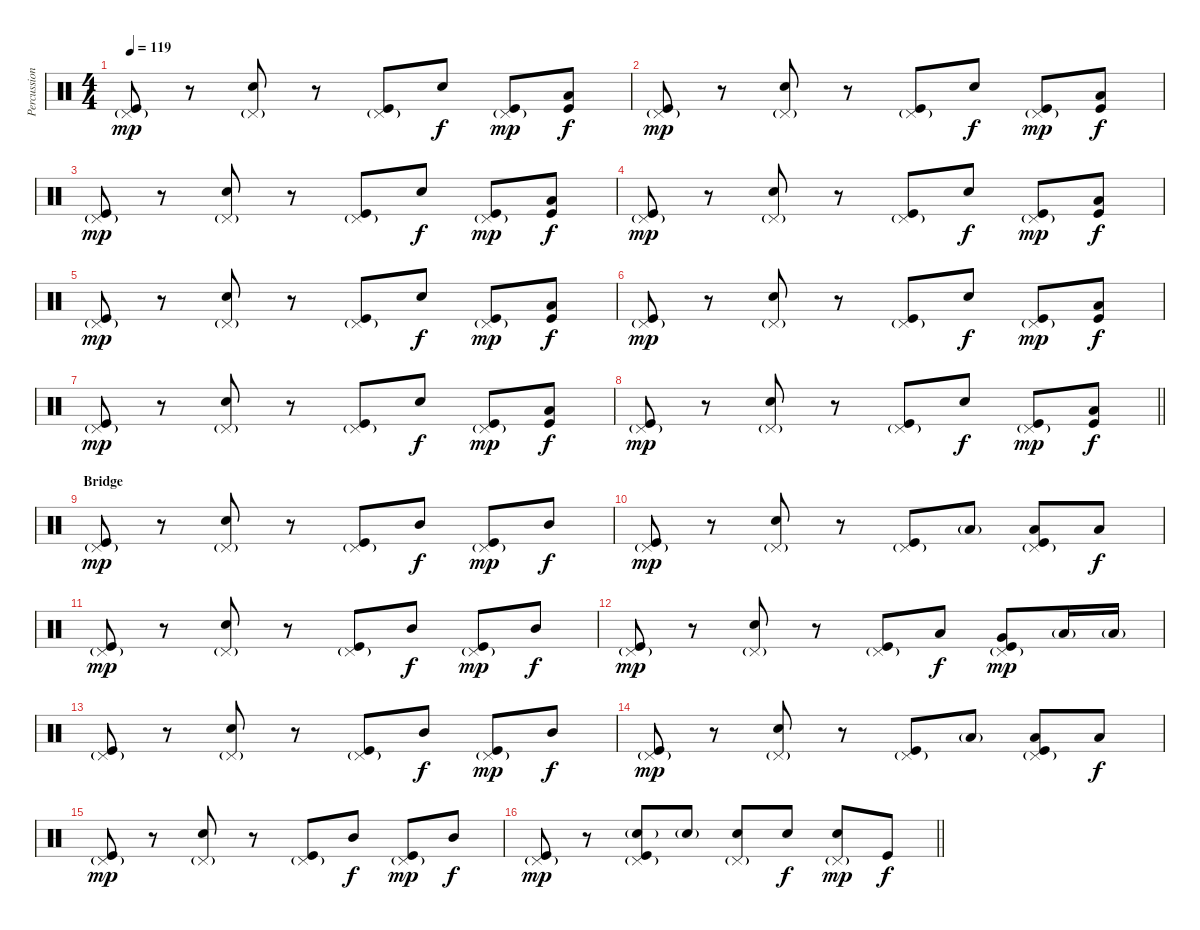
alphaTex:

\track ("Percussion" "Percussion") {instrument percussion}
\staff {score}
\articulation defaults
\ts (4 4)
\tempo 119
\clef neutral
\ks c
("Pedal Hi-Hat (hit)"{g} "Kick (hit)").8{dy mp} r.8 ("Pedal Hi-Hat (hit)"{g} "Snare (hit) 2").8 r.8 ("Pedal Hi-Hat (hit)"{g} "Kick (hit)").8 "Snare (hit) 2".8{dy f} ("Pedal Hi-Hat (hit)"{g} "Kick (hit)").8{dy mp} ("Low Tom (hit)" "Kick (hit)").8{dy f} |
("Pedal Hi-Hat (hit)"{g} "Kick (hit)").8{dy mp} r.8 ("Pedal Hi-Hat (hit)"{g} "Snare (hit) 2").8 r.8 ("Pedal Hi-Hat (hit)"{g} "Kick (hit)").8 "Snare (hit) 2".8{dy f} ("Pedal Hi-Hat (hit)"{g} "Kick (hit)").8{dy mp} ("Low Tom (hit)" "Kick (hit)").8{dy f} |
("Pedal Hi-Hat (hit)"{g} "Kick (hit)").8{dy mp} r.8 ("Pedal Hi-Hat (hit)"{g} "Snare (hit) 2").8 r.8 ("Pedal Hi-Hat (hit)"{g} "Kick (hit)").8 "Snare (hit) 2".8{dy f} ("Pedal Hi-Hat (hit)"{g} "Kick (hit)").8{dy mp} ("Low Tom (hit)" "Kick (hit)").8{dy f} |
("Pedal Hi-Hat (hit)"{g} "Kick (hit)").8{dy mp} r.8 ("Pedal Hi-Hat (hit)"{g} "Snare (hit) 2").8 r.8 ("Pedal Hi-Hat (hit)"{g} "Kick (hit)").8 "Snare (hit) 2".8{dy f} ("Pedal Hi-Hat (hit)"{g} "Kick (hit)").8{dy mp} ("Low Tom (hit)" "Kick (hit)").8{dy f} |
("Pedal Hi-Hat (hit)"{g} "Kick (hit)").8{dy mp} r.8 ("Pedal Hi-Hat (hit)"{g} "Snare (hit) 2").8 r.8 ("Pedal Hi-Hat (hit)"{g} "Kick (hit)").8 "Snare (hit) 2".8{dy f} ("Pedal Hi-Hat (hit)"{g} "Kick (hit)").8{dy mp} ("Low Tom (hit)" "Kick (hit)").8{dy f} |
("Pedal Hi-Hat (hit)"{g} "Kick (hit)").8{dy mp} r.8 ("Pedal Hi-Hat (hit)"{g} "Snare (hit) 2").8 r.8 ("Pedal Hi-Hat (hit)"{g} "Kick (hit)").8 "Snare (hit) 2".8{dy f} ("Pedal Hi-Hat (hit)"{g} "Kick (hit)").8{dy mp} ("Low Tom (hit)" "Kick (hit)").8{dy f} |
("Pedal Hi-Hat (hit)"{g} "Kick (hit)").8{dy mp} r.8 ("Pedal Hi-Hat (hit)"{g} "Snare (hit) 2").8 r.8 ("Pedal Hi-Hat (hit)"{g} "Kick (hit)").8 "Snare (hit) 2".8{dy f} ("Pedal Hi-Hat (hit)"{g} "Kick (hit)").8{dy mp} ("Low Tom (hit)" "Kick (hit)").8{dy f} |
\barLineRight lightlight
("Pedal Hi-Hat (hit)"{g} "Kick (hit)").8{dy mp} r.8 ("Pedal Hi-Hat (hit)"{g} "Snare (hit) 2").8 r.8 ("Pedal Hi-Hat (hit)"{g} "Kick (hit)").8 "Snare (hit) 2".8{dy f} ("Pedal Hi-Hat (hit)"{g} "Kick (hit)").8{dy mp} ("Low Tom (hit)" "Kick (hit)").8{dy f} |
\section ("" "Bridge")
("Pedal Hi-Hat (hit)"{g} "Kick (hit)").8{dy mp} r.8 ("Pedal Hi-Hat (hit)"{g} "Snare (hit) 2").8 r.8 ("Pedal Hi-Hat (hit)"{g} "Kick (hit)").8 "Mid Tom (hit)".8{dy f} ("Pedal Hi-Hat (hit)"{g} "Kick (hit)").8{dy mp} "Mid Tom (hit)".8{dy f} |
("Pedal Hi-Hat (hit)"{g} "Kick (hit)").8{dy mp} r.8 ("Pedal Hi-Hat (hit)"{g} "Snare (hit) 2").8 r.8 ("Pedal Hi-Hat (hit)"{g} "Kick (hit)").8 "Low Tom (hit)"{g}.8 ("Pedal Hi-Hat (hit)"{g} "Low Tom (hit)" "Kick (hit)").8 "Low Tom (hit)".8{dy f} |
("Pedal Hi-Hat (hit)"{g} "Kick (hit)").8{dy mp} r.8 ("Pedal Hi-Hat (hit)"{g} "Snare (hit) 2").8 r.8 ("Pedal Hi-Hat (hit)"{g} "Kick (hit)").8 "Mid Tom (hit)".8{dy f} ("Pedal Hi-Hat (hit)"{g} "Kick (hit)").8{dy mp} "Mid Tom (hit)".8{dy f} |
("Pedal Hi-Hat (hit)"{g} "Kick (hit)").8{dy mp} r.8 ("Pedal Hi-Hat (hit)"{g} "Snare (hit) 2").8 r.8 ("Pedal Hi-Hat (hit)"{g} "Kick (hit)").8 "Low Tom (hit)".8{dy f} ("Pedal Hi-Hat (hit)"{g} "Very Low Tom (hit)" "Kick (hit)").8{dy mp} "Low Floor Tom (hit)"{g}.16 "Low Floor Tom (hit)"{g}.16 |
("Pedal Hi-Hat (hit)"{g} "Kick (hit)").8 r.8 ("Pedal Hi-Hat (hit)"{g} "Snare (hit) 2").8 r.8 ("Pedal Hi-Hat (hit)"{g} "Kick (hit)").8 "Mid Tom (hit)".8{dy f} ("Pedal Hi-Hat (hit)"{g} "Kick (hit)").8{dy mp} "Mid Tom (hit)".8{dy f} |
("Pedal Hi-Hat (hit)"{g} "Kick (hit)").8{dy mp} r.8 ("Pedal Hi-Hat (hit)"{g} "Snare (hit) 2").8 r.8 ("Pedal Hi-Hat (hit)"{g} "Kick (hit)").8 "Low Tom (hit)"{g}.8 ("Pedal Hi-Hat (hit)"{g} "Low Tom (hit)" "Kick (hit)").8 "Low Tom (hit)".8{dy f} |
("Pedal Hi-Hat (hit)"{g} "Kick (hit)").8{dy mp} r.8 ("Pedal Hi-Hat (hit)"{g} "Snare (hit) 2").8 r.8 ("Pedal Hi-Hat (hit)"{g} "Kick (hit)").8 "Mid Tom (hit)".8{dy f} ("Pedal Hi-Hat (hit)"{g} "Kick (hit)").8{dy mp} "Mid Tom (hit)".8{dy f} |
\barLineRight lightlight
("Pedal Hi-Hat (hit)"{g} "Kick (hit)").8{dy mp} r.8 ("Pedal Hi-Hat (hit)"{g} "Snare (hit) 2"{g} "Kick (hit)").8 "Snare (hit) 2"{g}.8 ("Pedal Hi-Hat (hit)"{g} "Snare (hit) 2").8 "Snare (hit) 2".8{dy f} ("Pedal Hi-Hat (hit)"{g} "Snare (hit) 2").8{dy mp} "Kick (hit)".8{dy f}
